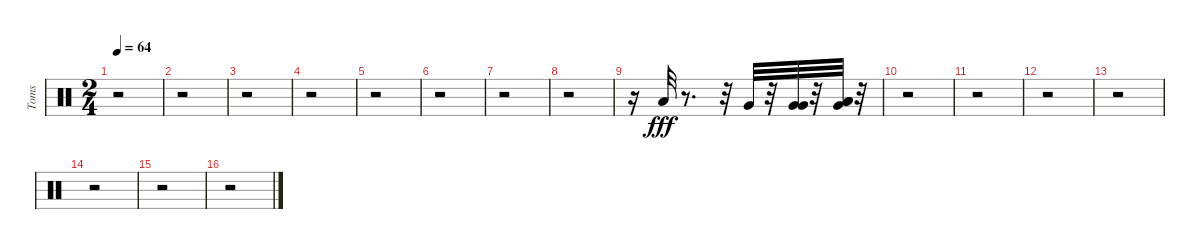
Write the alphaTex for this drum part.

\track ("Toms" "Toms") {instrument percussion}
\staff {score}
\articulation defaults
\ts (2 4)
\tempo 64
\clef neutral
\ks c
r.2{dy fff} |
r.2 |
r.2 |
r.2 |
r.2 |
r.2 |
r.2 |
r.2 |
r.16 "Low Tom (hit)".32 r.8{d} r.32 "Very Low Tom (hit)".32 r.32 ("Very Low Tom (hit)" "Very Low Tom (hit)").32 r.32 ("Very Low Tom (hit)" "Low Floor Tom (hit)" "Low Floor Tom (hit)").32 r.32 |
r.2 |
r.2 |
r.2 |
r.2 |
r.2 |
r.2 |
r.2
